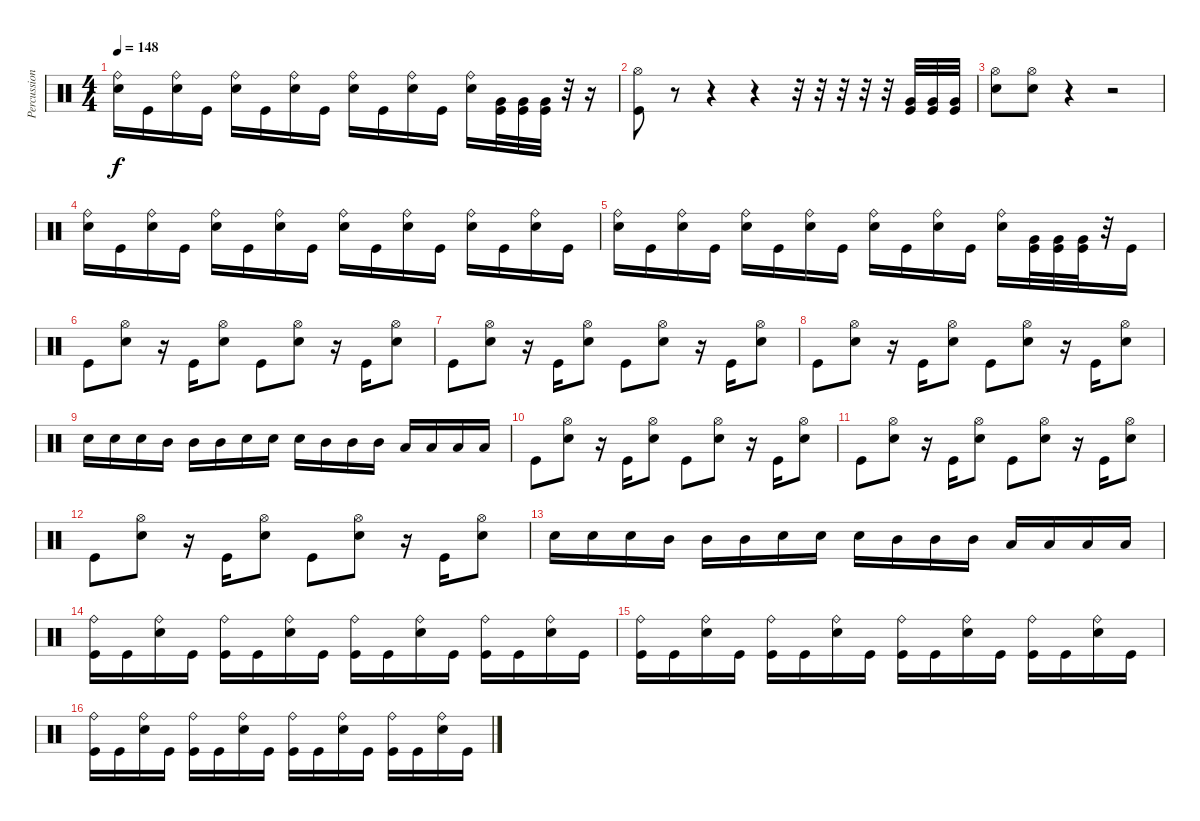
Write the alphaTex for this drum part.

\track ("Percussions" "Percussion") {instrument percussion}
\staff {score}
\articulation defaults
\ts (4 4)
\tempo 148
\clef neutral
\ks c
("Electric Snare (hit)" "Ride (bell)").16{dy f} "Kick (hit)".16 ("Electric Snare (hit)" "Ride (bell)").16 "Kick (hit)".16 ("Electric Snare (hit)" "Ride (bell)").16 "Kick (hit)".16 ("Electric Snare (hit)" "Ride (bell)").16 "Kick (hit)".16 ("Electric Snare (hit)" "Ride (bell)").16 "Kick (hit)".16 ("Electric Snare (hit)" "Ride (bell)").16 "Kick (hit)".16 ("Electric Snare (hit)" "Ride (bell)").16 ("Kick (hit)" "Very Low Tom (hit)").32 ("Kick (hit)" "Very Low Tom (hit)").32 ("Kick (hit)" "Very Low Tom (hit)").32 r.32 r.16 |
("Kick (hit)" "Hi-Hat (open)").8 r.8 r.4 r.4 r.32 r.32 r.32 r.32 r.32 ("Kick (hit)" "Very Low Tom (hit)").32 ("Kick (hit)" "Very Low Tom (hit)").32 ("Kick (hit)" "Very Low Tom (hit)").32 |
("Electric Snare (hit)" "Hi-Hat (open)").8 ("Electric Snare (hit)" "Hi-Hat (open)").8 r.4 r.2 |
("Electric Snare (hit)" "Ride (bell)").16 "Kick (hit)".16 ("Electric Snare (hit)" "Ride (bell)").16 "Kick (hit)".16 ("Electric Snare (hit)" "Ride (bell)").16 "Kick (hit)".16 ("Electric Snare (hit)" "Ride (bell)").16 "Kick (hit)".16 ("Electric Snare (hit)" "Ride (bell)").16 "Kick (hit)".16 ("Electric Snare (hit)" "Ride (bell)").16 "Kick (hit)".16 ("Electric Snare (hit)" "Ride (bell)").16 "Kick (hit)".16 ("Electric Snare (hit)" "Ride (bell)").16 "Kick (hit)".16 |
("Electric Snare (hit)" "Ride (bell)").16 "Kick (hit)".16 ("Electric Snare (hit)" "Ride (bell)").16 "Kick (hit)".16 ("Electric Snare (hit)" "Ride (bell)").16 "Kick (hit)".16 ("Electric Snare (hit)" "Ride (bell)").16 "Kick (hit)".16 ("Electric Snare (hit)" "Ride (bell)").16 "Kick (hit)".16 ("Electric Snare (hit)" "Ride (bell)").16 "Kick (hit)".16 ("Electric Snare (hit)" "Ride (bell)").16 ("Kick (hit)" "Very Low Tom (hit)").32 ("Kick (hit)" "Very Low Tom (hit)").32 ("Kick (hit)" "Very Low Tom (hit)").32 r.32 "Kick (hit)".16 |
"Kick (hit)".8 ("Electric Snare (hit)" "Hi-Hat (open)").8 r.16 "Kick (hit)".16 ("Electric Snare (hit)" "Hi-Hat (open)").8 "Kick (hit)".8 ("Electric Snare (hit)" "Hi-Hat (open)").8 r.16 "Kick (hit)".16 ("Electric Snare (hit)" "Hi-Hat (open)").8 |
"Kick (hit)".8 ("Electric Snare (hit)" "Hi-Hat (open)").8 r.16 "Kick (hit)".16 ("Electric Snare (hit)" "Hi-Hat (open)").8 "Kick (hit)".8 ("Electric Snare (hit)" "Hi-Hat (open)").8 r.16 "Kick (hit)".16 ("Electric Snare (hit)" "Hi-Hat (open)").8 |
"Kick (hit)".8 ("Electric Snare (hit)" "Hi-Hat (open)").8 r.16 "Kick (hit)".16 ("Electric Snare (hit)" "Hi-Hat (open)").8 "Kick (hit)".8 ("Electric Snare (hit)" "Hi-Hat (open)").8 r.16 "Kick (hit)".16 ("Electric Snare (hit)" "Hi-Hat (open)").8 |
"Electric Snare (hit)".16 "Electric Snare (hit)".16 "Electric Snare (hit)".16 "Mid Tom (hit)".16 "Mid Tom (hit)".16 "Mid Tom (hit)".16 "Electric Snare (hit)".16 "Electric Snare (hit)".16 "Electric Snare (hit)".16 "Mid Tom (hit)".16 "Mid Tom (hit)".16 "Mid Tom (hit)".16 "Low Tom (hit)".16 "Low Tom (hit)".16 "Low Tom (hit)".16 "Low Tom (hit)".16 |
"Kick (hit)".8 ("Electric Snare (hit)" "Hi-Hat (open)").8 r.16 "Kick (hit)".16 ("Electric Snare (hit)" "Hi-Hat (open)").8 "Kick (hit)".8 ("Electric Snare (hit)" "Hi-Hat (open)").8 r.16 "Kick (hit)".16 ("Electric Snare (hit)" "Hi-Hat (open)").8 |
"Kick (hit)".8 ("Electric Snare (hit)" "Hi-Hat (open)").8 r.16 "Kick (hit)".16 ("Electric Snare (hit)" "Hi-Hat (open)").8 "Kick (hit)".8 ("Electric Snare (hit)" "Hi-Hat (open)").8 r.16 "Kick (hit)".16 ("Electric Snare (hit)" "Hi-Hat (open)").8 |
"Kick (hit)".8 ("Electric Snare (hit)" "Hi-Hat (open)").8 r.16 "Kick (hit)".16 ("Electric Snare (hit)" "Hi-Hat (open)").8 "Kick (hit)".8 ("Electric Snare (hit)" "Hi-Hat (open)").8 r.16 "Kick (hit)".16 ("Electric Snare (hit)" "Hi-Hat (open)").8 |
"Electric Snare (hit)".16 "Electric Snare (hit)".16 "Electric Snare (hit)".16 "Mid Tom (hit)".16 "Mid Tom (hit)".16 "Mid Tom (hit)".16 "Electric Snare (hit)".16 "Electric Snare (hit)".16 "Electric Snare (hit)".16 "Mid Tom (hit)".16 "Mid Tom (hit)".16 "Mid Tom (hit)".16 "Low Tom (hit)".16 "Low Tom (hit)".16 "Low Tom (hit)".16 "Low Tom (hit)".16 |
("Kick (hit)" "Ride (bell)").16 "Kick (hit)".16 ("Electric Snare (hit)" "Ride (bell)").16 "Kick (hit)".16 ("Kick (hit)" "Ride (bell)").16 "Kick (hit)".16 ("Electric Snare (hit)" "Ride (bell)").16 "Kick (hit)".16 ("Kick (hit)" "Ride (bell)").16 "Kick (hit)".16 ("Electric Snare (hit)" "Ride (bell)").16 "Kick (hit)".16 ("Kick (hit)" "Ride (bell)").16 "Kick (hit)".16 ("Electric Snare (hit)" "Ride (bell)").16 "Kick (hit)".16 |
("Kick (hit)" "Ride (bell)").16 "Kick (hit)".16 ("Electric Snare (hit)" "Ride (bell)").16 "Kick (hit)".16 ("Kick (hit)" "Ride (bell)").16 "Kick (hit)".16 ("Electric Snare (hit)" "Ride (bell)").16 "Kick (hit)".16 ("Kick (hit)" "Ride (bell)").16 "Kick (hit)".16 ("Electric Snare (hit)" "Ride (bell)").16 "Kick (hit)".16 ("Kick (hit)" "Ride (bell)").16 "Kick (hit)".16 ("Electric Snare (hit)" "Ride (bell)").16 "Kick (hit)".16 |
("Kick (hit)" "Ride (bell)").16 "Kick (hit)".16 ("Electric Snare (hit)" "Ride (bell)").16 "Kick (hit)".16 ("Kick (hit)" "Ride (bell)").16 "Kick (hit)".16 ("Electric Snare (hit)" "Ride (bell)").16 "Kick (hit)".16 ("Kick (hit)" "Ride (bell)").16 "Kick (hit)".16 ("Electric Snare (hit)" "Ride (bell)").16 "Kick (hit)".16 ("Kick (hit)" "Ride (bell)").16 "Kick (hit)".16 ("Electric Snare (hit)" "Ride (bell)").16 "Kick (hit)".16
